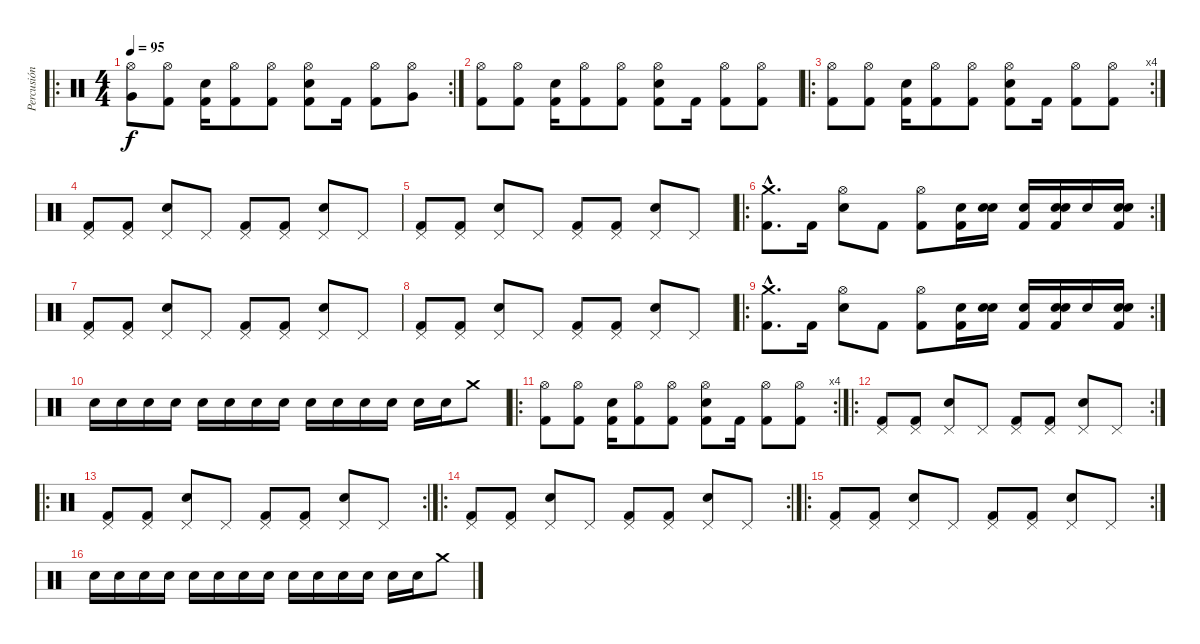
\track ("Percusión" "Percusión") {instrument percussion}
\staff {score}
\articulation defaults
\ro
\rc 2
\ts (4 4)
\tempo 95
\clef neutral
\ks c
("Very Low Tom (hit)" "Hi-Hat (open)").8{dy f} ("Kick (hit) 2" "Hi-Hat (open)").8 ("Electric Snare (hit)" "Kick (hit) 2").16 ("Kick (hit) 2" "Hi-Hat (open)").8 ("Kick (hit) 2" "Hi-Hat (open)").8 ("Electric Snare (hit)" "Kick (hit) 2" "Hi-Hat (open)").8 "Kick (hit) 2".16 ("Kick (hit) 2" "Hi-Hat (open)").8 ("Very Low Tom (hit)" "Hi-Hat (open)").8 |
("Kick (hit) 2" "Hi-Hat (open)").8 ("Kick (hit) 2" "Hi-Hat (open)").8 ("Electric Snare (hit)" "Kick (hit) 2").16 ("Kick (hit) 2" "Hi-Hat (open)").8 ("Kick (hit) 2" "Hi-Hat (open)").8 ("Electric Snare (hit)" "Kick (hit) 2" "Hi-Hat (open)").8 "Kick (hit) 2".16 ("Kick (hit) 2" "Hi-Hat (open)").8 ("Kick (hit) 2" "Hi-Hat (open)").8 |
\ro
\rc 4
("Kick (hit) 2" "Hi-Hat (open)").8 ("Kick (hit) 2" "Hi-Hat (open)").8 ("Electric Snare (hit)" "Kick (hit) 2").16 ("Kick (hit) 2" "Hi-Hat (open)").8 ("Kick (hit) 2" "Hi-Hat (open)").8 ("Electric Snare (hit)" "Kick (hit) 2" "Hi-Hat (open)").8 "Kick (hit) 2".16 ("Kick (hit) 2" "Hi-Hat (open)").8 ("Kick (hit) 2" "Hi-Hat (open)").8 |
("Pedal Hi-Hat (hit)" "Kick (hit) 2").8 ("Pedal Hi-Hat (hit)" "Kick (hit) 2").8 ("Pedal Hi-Hat (hit)" "Electric Snare (hit)").8 "Pedal Hi-Hat (hit)".8 ("Pedal Hi-Hat (hit)" "Kick (hit) 2").8 ("Pedal Hi-Hat (hit)" "Kick (hit) 2").8 ("Pedal Hi-Hat (hit)" "Electric Snare (hit)").8 "Pedal Hi-Hat (hit)".8 |
("Pedal Hi-Hat (hit)" "Kick (hit) 2").8 ("Pedal Hi-Hat (hit)" "Kick (hit) 2").8 ("Pedal Hi-Hat (hit)" "Electric Snare (hit)").8 "Pedal Hi-Hat (hit)".8 ("Pedal Hi-Hat (hit)" "Kick (hit) 2").8 ("Pedal Hi-Hat (hit)" "Kick (hit) 2").8 ("Pedal Hi-Hat (hit)" "Electric Snare (hit)").8 "Pedal Hi-Hat (hit)".8 |
\ro
\rc 2
("Crash medium (hit)"{hac} "Kick (hit) 2"{hac}).8{d} "Kick (hit) 2".16 ("Hi-Hat (open)" "Electric Snare (hit)").8 "Kick (hit) 2".8 ("Hi-Hat (open)" "Kick (hit) 2").8 ("Kick (hit) 2" "Electric Snare (hit)").16 ("Electric Snare (hit)" "Snare (hit)").16 ("Kick (hit) 2" "Electric Snare (hit)").16 ("Kick (hit) 2" "Electric Snare (hit)" "Snare (hit)").16 "Electric Snare (hit)".16 ("Kick (hit) 2" "Electric Snare (hit)" "Snare (hit)").16 |
("Pedal Hi-Hat (hit)" "Kick (hit) 2").8 ("Pedal Hi-Hat (hit)" "Kick (hit) 2").8 ("Pedal Hi-Hat (hit)" "Electric Snare (hit)").8 "Pedal Hi-Hat (hit)".8 ("Pedal Hi-Hat (hit)" "Kick (hit) 2").8 ("Pedal Hi-Hat (hit)" "Kick (hit) 2").8 ("Pedal Hi-Hat (hit)" "Electric Snare (hit)").8 "Pedal Hi-Hat (hit)".8 |
("Pedal Hi-Hat (hit)" "Kick (hit) 2").8 ("Pedal Hi-Hat (hit)" "Kick (hit) 2").8 ("Pedal Hi-Hat (hit)" "Electric Snare (hit)").8 "Pedal Hi-Hat (hit)".8 ("Pedal Hi-Hat (hit)" "Kick (hit) 2").8 ("Pedal Hi-Hat (hit)" "Kick (hit) 2").8 ("Pedal Hi-Hat (hit)" "Electric Snare (hit)").8 "Pedal Hi-Hat (hit)".8 |
\ro
\rc 2
("Crash medium (hit)"{hac} "Kick (hit) 2"{hac}).8{d} "Kick (hit) 2".16 ("Hi-Hat (open)" "Electric Snare (hit)").8 "Kick (hit) 2".8 ("Hi-Hat (open)" "Kick (hit) 2").8 ("Kick (hit) 2" "Electric Snare (hit)").16 ("Electric Snare (hit)" "Snare (hit)").16 ("Kick (hit) 2" "Electric Snare (hit)").16 ("Kick (hit) 2" "Electric Snare (hit)" "Snare (hit)").16 "Electric Snare (hit)".16 ("Kick (hit) 2" "Electric Snare (hit)" "Snare (hit)").16 |
"Electric Snare (hit)".16 "Electric Snare (hit)".16 "Electric Snare (hit)".16 "Electric Snare (hit)".16 "Electric Snare (hit)".16 "Electric Snare (hit)".16 "Electric Snare (hit)".16 "Electric Snare (hit)".16 "Electric Snare (hit)".16 "Electric Snare (hit)".16 "Electric Snare (hit)".16 "Electric Snare (hit)".16 "Electric Snare (hit)".16 "Electric Snare (hit)".16 "Crash medium (hit)".8 |
\ro
\rc 4
("Kick (hit) 2" "Hi-Hat (open)").8 ("Kick (hit) 2" "Hi-Hat (open)").8 ("Electric Snare (hit)" "Kick (hit) 2").16 ("Kick (hit) 2" "Hi-Hat (open)").8 ("Kick (hit) 2" "Hi-Hat (open)").8 ("Electric Snare (hit)" "Kick (hit) 2" "Hi-Hat (open)").8 "Kick (hit) 2".16 ("Kick (hit) 2" "Hi-Hat (open)").8 ("Kick (hit) 2" "Hi-Hat (open)").8 |
\ro
\rc 2
("Pedal Hi-Hat (hit)" "Kick (hit) 2").8 ("Pedal Hi-Hat (hit)" "Kick (hit) 2").8 ("Pedal Hi-Hat (hit)" "Electric Snare (hit)").8 "Pedal Hi-Hat (hit)".8 ("Pedal Hi-Hat (hit)" "Kick (hit) 2").8 ("Pedal Hi-Hat (hit)" "Kick (hit) 2").8 ("Pedal Hi-Hat (hit)" "Electric Snare (hit)").8 "Pedal Hi-Hat (hit)".8 |
\ro
\rc 2
("Pedal Hi-Hat (hit)" "Kick (hit) 2").8 ("Pedal Hi-Hat (hit)" "Kick (hit) 2").8 ("Pedal Hi-Hat (hit)" "Electric Snare (hit)").8 "Pedal Hi-Hat (hit)".8 ("Pedal Hi-Hat (hit)" "Kick (hit) 2").8 ("Pedal Hi-Hat (hit)" "Kick (hit) 2").8 ("Pedal Hi-Hat (hit)" "Electric Snare (hit)").8 "Pedal Hi-Hat (hit)".8 |
\ro
\rc 2
("Pedal Hi-Hat (hit)" "Kick (hit) 2").8 ("Pedal Hi-Hat (hit)" "Kick (hit) 2").8 ("Pedal Hi-Hat (hit)" "Electric Snare (hit)").8 "Pedal Hi-Hat (hit)".8 ("Pedal Hi-Hat (hit)" "Kick (hit) 2").8 ("Pedal Hi-Hat (hit)" "Kick (hit) 2").8 ("Pedal Hi-Hat (hit)" "Electric Snare (hit)").8 "Pedal Hi-Hat (hit)".8 |
\ro
\rc 2
("Pedal Hi-Hat (hit)" "Kick (hit) 2").8 ("Pedal Hi-Hat (hit)" "Kick (hit) 2").8 ("Pedal Hi-Hat (hit)" "Electric Snare (hit)").8 "Pedal Hi-Hat (hit)".8 ("Pedal Hi-Hat (hit)" "Kick (hit) 2").8 ("Pedal Hi-Hat (hit)" "Kick (hit) 2").8 ("Pedal Hi-Hat (hit)" "Electric Snare (hit)").8 "Pedal Hi-Hat (hit)".8 |
"Electric Snare (hit)".16 "Electric Snare (hit)".16 "Electric Snare (hit)".16 "Electric Snare (hit)".16 "Electric Snare (hit)".16 "Electric Snare (hit)".16 "Electric Snare (hit)".16 "Electric Snare (hit)".16 "Electric Snare (hit)".16 "Electric Snare (hit)".16 "Electric Snare (hit)".16 "Electric Snare (hit)".16 "Electric Snare (hit)".16 "Electric Snare (hit)".16 "Crash medium (hit)".8
